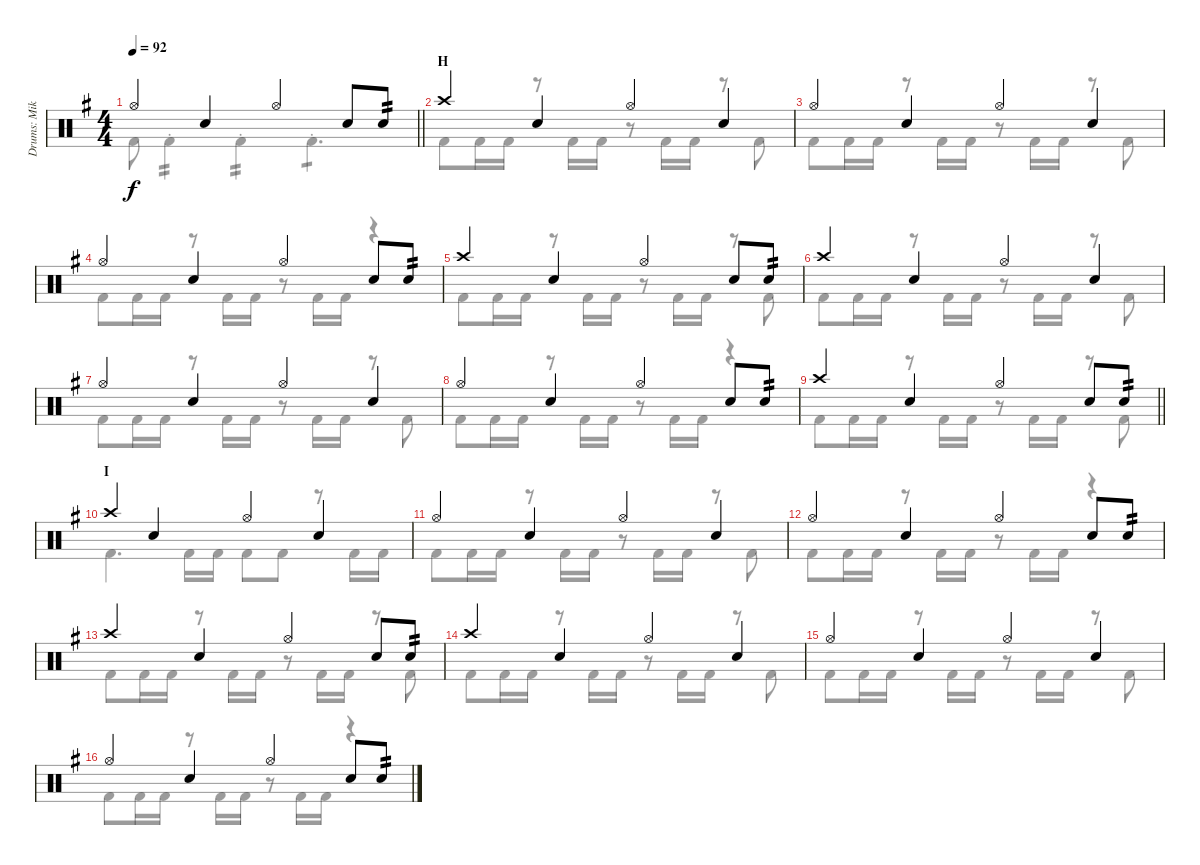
\track ("Drums: Mike" "Drums: Mik") {instrument percussion}
\staff {score}
\articulation defaults
\voice
\ts (4 4)
\tempo 92
\clef neutral
\barLineRight lightlight
\ks g "Hi-Hat (open)".4{dy f} "Snare (hit) 2".4 "Hi-Hat (open)".4{beam merge} "Snare (hit) 2".8 "Electric Snare (hit)".8{tp 2}
|
\section ("" "H")
"Crash high (hit)".4 "Snare (hit) 2".4 "Hi-Hat (open)".4{beam merge} "Snare (hit) 2".4 |
"Hi-Hat (open)".4 "Snare (hit) 2".4 "Hi-Hat (open)".4{beam merge} "Snare (hit) 2".4 |
"Hi-Hat (open)".4 "Snare (hit) 2".4 "Hi-Hat (open)".4{beam merge} "Snare (hit) 2".8 "Electric Snare (hit)".8{tp 2} |
"Crash high (hit)".4 "Snare (hit) 2".4 "Hi-Hat (open)".4{beam merge} "Snare (hit) 2".8 "Electric Snare (hit)".8{tp 2} |
"Crash high (hit)".4 "Snare (hit) 2".4 "Hi-Hat (open)".4{beam merge} "Snare (hit) 2".4 |
"Hi-Hat (open)".4 "Snare (hit) 2".4 "Hi-Hat (open)".4{beam merge} "Snare (hit) 2".4 |
"Hi-Hat (open)".4 "Snare (hit) 2".4 "Hi-Hat (open)".4{beam merge} "Snare (hit) 2".8 "Electric Snare (hit)".8{tp 2} |
\barLineRight lightlight "Crash high (hit)".4 "Snare (hit) 2".4 "Hi-Hat (open)".4{beam merge} "Snare (hit) 2".8 "Electric Snare (hit)".8{tp 2}
|
\section ("" "I")
"Crash high (hit)".4 "Snare (hit) 2".4 "Hi-Hat (open)".4{beam merge} "Snare (hit) 2".4 |
"Hi-Hat (open)".4 "Snare (hit) 2".4 "Hi-Hat (open)".4{beam merge} "Snare (hit) 2".4 |
"Hi-Hat (open)".4 "Snare (hit) 2".4 "Hi-Hat (open)".4{beam merge} "Snare (hit) 2".8 "Electric Snare (hit)".8{tp 2} |
"Crash high (hit)".4 "Snare (hit) 2".4 "Hi-Hat (open)".4{beam merge} "Snare (hit) 2".8 "Electric Snare (hit)".8{tp 2} |
"Crash high (hit)".4 "Snare (hit) 2".4 "Hi-Hat (open)".4{beam merge} "Snare (hit) 2".4 |
"Hi-Hat (open)".4 "Snare (hit) 2".4 "Hi-Hat (open)".4{beam merge} "Snare (hit) 2".4 |
"Hi-Hat (open)".4 "Snare (hit) 2".4 "Hi-Hat (open)".4{beam merge} "Snare (hit) 2".8 "Electric Snare (hit)".8{tp 2}
\voice
\clef neutral
\ottava regular
\simile none
\barLineRight lightlight
\ks g "Kick (hit) 2".8{dy f} "Kick (hit) 2"{st}.4{tp 2} "Kick (hit) 2"{st}.4{tp 2} "Kick (hit) 2"{st}.4{d tp 1}
|
"Kick (hit) 2".8 "Kick (hit) 2".16 "Kick (hit) 2".16 r.8 "Kick (hit) 2".16 "Kick (hit) 2".16 r.8 "Kick (hit) 2".16 "Kick (hit) 2".16 r.8 "Kick (hit) 2".8 |
"Kick (hit) 2".8 "Kick (hit) 2".16 "Kick (hit) 2".16 r.8 "Kick (hit) 2".16 "Kick (hit) 2".16 r.8 "Kick (hit) 2".16 "Kick (hit) 2".16 r.8 "Kick (hit) 2".8 |
"Kick (hit) 2".8 "Kick (hit) 2".16 "Kick (hit) 2".16 r.8 "Kick (hit) 2".16 "Kick (hit) 2".16 r.8 "Kick (hit) 2".16 "Kick (hit) 2".16 r.4 |
"Kick (hit) 2".8 "Kick (hit) 2".16 "Kick (hit) 2".16 r.8 "Kick (hit) 2".16 "Kick (hit) 2".16 r.8 "Kick (hit) 2".16 "Kick (hit) 2".16 r.8 "Kick (hit) 2".8 |
"Kick (hit) 2".8 "Kick (hit) 2".16 "Kick (hit) 2".16 r.8 "Kick (hit) 2".16 "Kick (hit) 2".16 r.8 "Kick (hit) 2".16 "Kick (hit) 2".16 r.8 "Kick (hit) 2".8 |
"Kick (hit) 2".8 "Kick (hit) 2".16 "Kick (hit) 2".16 r.8 "Kick (hit) 2".16 "Kick (hit) 2".16 r.8 "Kick (hit) 2".16 "Kick (hit) 2".16 r.8 "Kick (hit) 2".8 |
"Kick (hit) 2".8 "Kick (hit) 2".16 "Kick (hit) 2".16 r.8 "Kick (hit) 2".16 "Kick (hit) 2".16 r.8 "Kick (hit) 2".16 "Kick (hit) 2".16 r.4 |
\barLineRight lightlight "Kick (hit) 2".8 "Kick (hit) 2".16 "Kick (hit) 2".16
r.8 "Kick (hit) 2".16 "Kick (hit) 2".16 r.8 "Kick (hit) 2".16 "Kick (hit) 2".16 r.8 "Kick (hit) 2".8 |
"Kick (hit) 2".4{d} "Kick (hit) 2".16 "Kick (hit) 2".16 "Kick (hit) 2".8 "Kick (hit) 2".8 r.8 "Kick (hit) 2".16 "Kick (hit) 2".16 |
"Kick (hit) 2".8 "Kick (hit) 2".16 "Kick (hit) 2".16 r.8 "Kick (hit) 2".16 "Kick (hit) 2".16 r.8 "Kick (hit) 2".16 "Kick (hit) 2".16 r.8 "Kick (hit) 2".8 |
"Kick (hit) 2".8 "Kick (hit) 2".16 "Kick (hit) 2".16 r.8 "Kick (hit) 2".16 "Kick (hit) 2".16 r.8 "Kick (hit) 2".16 "Kick (hit) 2".16 r.4 |
"Kick (hit) 2".8 "Kick (hit) 2".16 "Kick (hit) 2".16 r.8 "Kick (hit) 2".16 "Kick (hit) 2".16 r.8 "Kick (hit) 2".16 "Kick (hit) 2".16 r.8 "Kick (hit) 2".8 |
"Kick (hit) 2".8 "Kick (hit) 2".16 "Kick (hit) 2".16 r.8 "Kick (hit) 2".16 "Kick (hit) 2".16 r.8 "Kick (hit) 2".16 "Kick (hit) 2".16 r.8 "Kick (hit) 2".8 |
"Kick (hit) 2".8 "Kick (hit) 2".16 "Kick (hit) 2".16 r.8 "Kick (hit) 2".16 "Kick (hit) 2".16 r.8 "Kick (hit) 2".16 "Kick (hit) 2".16 r.8 "Kick (hit) 2".8 |
"Kick (hit) 2".8 "Kick (hit) 2".16 "Kick (hit) 2".16 r.8 "Kick (hit) 2".16 "Kick (hit) 2".16 r.8 "Kick (hit) 2".16 "Kick (hit) 2".16 r.4
